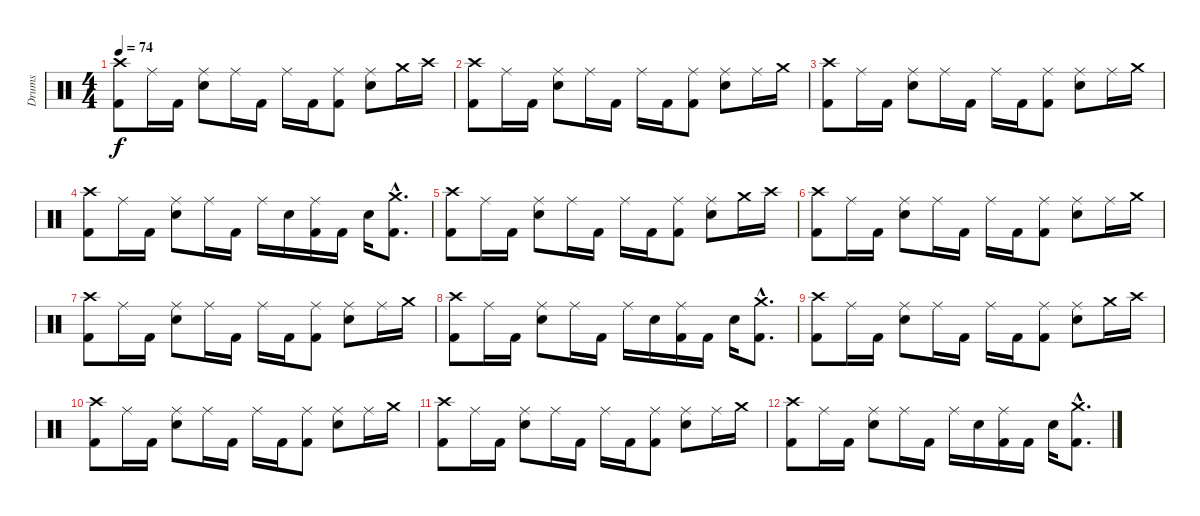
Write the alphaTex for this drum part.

\track ("Drums" "Drums") {instrument percussion}
\staff {score}
\articulation defaults
\ts (4 4)
\tempo 74
\clef neutral
\ks c
("Crash high (hit)" "Kick (hit) 2").8{dy f} "Ride (middle)".16 "Kick (hit) 2".16 ("Ride (middle)" "Snare (hit) 2").8 "Ride (middle)".16 "Kick (hit) 2".16 "Ride (middle)".16 "Kick (hit) 2".16 ("Ride (middle)" "Kick (hit) 2").8 ("Ride (middle)" "Snare (hit) 2").8 "Crash medium (hit)".16 "Crash high (hit)".16 |
("Crash high (hit)" "Kick (hit) 2").8 "Ride (middle)".16 "Kick (hit) 2".16 ("Ride (middle)" "Snare (hit) 2").8 "Ride (middle)".16 "Kick (hit) 2".16 "Ride (middle)".16 "Kick (hit) 2".16 ("Ride (middle)" "Kick (hit) 2").8 ("Ride (middle)" "Snare (hit) 2").8 "Ride (middle)".16 "Crash medium (hit)".16 |
("Crash high (hit)" "Kick (hit) 2").8 "Ride (middle)".16 "Kick (hit) 2".16 ("Ride (middle)" "Snare (hit) 2").8 "Ride (middle)".16 "Kick (hit) 2".16 "Ride (middle)".16 "Kick (hit) 2".16 ("Ride (middle)" "Kick (hit) 2").8 ("Ride (middle)" "Snare (hit) 2").8 "Ride (middle)".16 "Crash medium (hit)".16 |
("Crash high (hit)" "Kick (hit) 2").8 "Ride (middle)".16 "Kick (hit) 2".16 ("Ride (middle)" "Snare (hit) 2").8 "Ride (middle)".16 "Kick (hit) 2".16 "Ride (middle)".16 "Snare (hit) 2".16 ("Ride (middle)" "Kick (hit) 2").16 "Kick (hit) 2".16 "Snare (hit) 2".16 ("Crash medium (hit)"{hac} "Kick (hit) 2"{hac}).8{d} |
("Crash high (hit)" "Kick (hit) 2").8 "Ride (middle)".16 "Kick (hit) 2".16 ("Ride (middle)" "Snare (hit) 2").8 "Ride (middle)".16 "Kick (hit) 2".16 "Ride (middle)".16 "Kick (hit) 2".16 ("Ride (middle)" "Kick (hit) 2").8 ("Ride (middle)" "Snare (hit) 2").8 "Crash medium (hit)".16 "Crash high (hit)".16 |
("Crash high (hit)" "Kick (hit) 2").8 "Ride (middle)".16 "Kick (hit) 2".16 ("Ride (middle)" "Snare (hit) 2").8 "Ride (middle)".16 "Kick (hit) 2".16 "Ride (middle)".16 "Kick (hit) 2".16 ("Ride (middle)" "Kick (hit) 2").8 ("Ride (middle)" "Snare (hit) 2").8 "Ride (middle)".16 "Crash medium (hit)".16 |
("Crash high (hit)" "Kick (hit) 2").8{volume 13} "Ride (middle)".16 "Kick (hit) 2".16 ("Ride (middle)" "Snare (hit) 2").8 "Ride (middle)".16 "Kick (hit) 2".16{volume 9} "Ride (middle)".16 "Kick (hit) 2".16 ("Ride (middle)" "Kick (hit) 2").8 ("Ride (middle)" "Snare (hit) 2").8 "Ride (middle)".16 "Crash medium (hit)".16 |
("Crash high (hit)" "Kick (hit) 2").8{volume 9} "Ride (middle)".16 "Kick (hit) 2".16 ("Ride (middle)" "Snare (hit) 2").8 "Ride (middle)".16 "Kick (hit) 2".16{volume 8} "Ride (middle)".16 "Snare (hit) 2".16 ("Ride (middle)" "Kick (hit) 2").16 "Kick (hit) 2".16 "Snare (hit) 2".16 ("Crash medium (hit)"{hac} "Kick (hit) 2"{hac}).8{d} |
("Crash high (hit)" "Kick (hit) 2").8{volume 6} "Ride (middle)".16 "Kick (hit) 2".16 ("Ride (middle)" "Snare (hit) 2").8 "Ride (middle)".16 "Kick (hit) 2".16{volume 5} "Ride (middle)".16 "Kick (hit) 2".16 ("Ride (middle)" "Kick (hit) 2").8 ("Ride (middle)" "Snare (hit) 2").8 "Crash medium (hit)".16 "Crash high (hit)".16 |
("Crash high (hit)" "Kick (hit) 2").8{volume 3} "Ride (middle)".16 "Kick (hit) 2".16 ("Ride (middle)" "Snare (hit) 2").8 "Ride (middle)".16 "Kick (hit) 2".16{volume 2} "Ride (middle)".16 "Kick (hit) 2".16 ("Ride (middle)" "Kick (hit) 2").8 ("Ride (middle)" "Snare (hit) 2").8 "Ride (middle)".16 "Crash medium (hit)".16 |
("Crash high (hit)" "Kick (hit) 2").8{volume 1} "Ride (middle)".16 "Kick (hit) 2".16 ("Ride (middle)" "Snare (hit) 2").8 "Ride (middle)".16 "Kick (hit) 2".16{volume 0} "Ride (middle)".16 "Kick (hit) 2".16 ("Ride (middle)" "Kick (hit) 2").8 ("Ride (middle)" "Snare (hit) 2").8 "Ride (middle)".16 "Crash medium (hit)".16 |
("Crash high (hit)" "Kick (hit) 2").8{volume 0} "Ride (middle)".16 "Kick (hit) 2".16 ("Ride (middle)" "Snare (hit) 2").8 "Ride (middle)".16 "Kick (hit) 2".16 "Ride (middle)".16 "Snare (hit) 2".16 ("Ride (middle)" "Kick (hit) 2").16 "Kick (hit) 2".16 "Snare (hit) 2".16 ("Crash medium (hit)"{hac} "Kick (hit) 2"{hac}).8{d}
